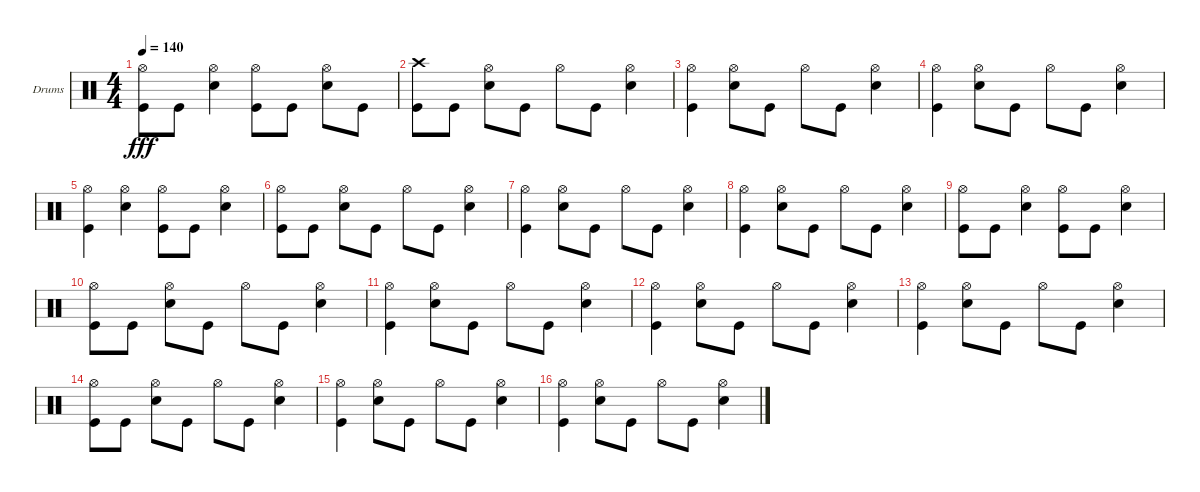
\bracketExtendMode groupsimilarinstruments
\firstSystemTrackNameOrientation horizontal
\otherSystemsTrackNameOrientation horizontal
\track ("Drumkit" "Drums") {instrument percussion}
\staff {score}
\articulation defaults
\ts (4 4)
\tempo 140
\clef neutral
\ks c
("Kick (hit)" "Hi-Hat (open)").8{dy fff} "Kick (hit)".8 ("Snare (hit) 2" "Hi-Hat (open)").4 ("Kick (hit)" "Hi-Hat (open)").8 "Kick (hit)".8 ("Snare (hit) 2" "Hi-Hat (open)").8 "Kick (hit)".8 |
("Kick (hit)" "Crash high (hit)").8 "Kick (hit)".8 ("Snare (hit) 2" "Hi-Hat (open)").8 "Kick (hit)".8 "Hi-Hat (open)".8 "Kick (hit)".8 ("Snare (hit) 2" "Hi-Hat (open)").4 |
("Kick (hit)" "Hi-Hat (open)").4 ("Hi-Hat (open)" "Snare (hit) 2").8 "Kick (hit)".8 "Hi-Hat (open)".8 "Kick (hit)".8 ("Snare (hit) 2" "Hi-Hat (open)").4 |
("Kick (hit)" "Hi-Hat (open)").4 ("Hi-Hat (open)" "Snare (hit) 2").8 "Kick (hit)".8 "Hi-Hat (open)".8 "Kick (hit)".8 ("Snare (hit) 2" "Hi-Hat (open)").4 |
("Kick (hit)" "Hi-Hat (open)").4 ("Hi-Hat (open)" "Snare (hit) 2").4 ("Hi-Hat (open)" "Kick (hit)").8 "Kick (hit)".8 ("Snare (hit) 2" "Hi-Hat (open)").4 |
("Kick (hit)" "Hi-Hat (open)").8 "Kick (hit)".8 ("Snare (hit) 2" "Hi-Hat (open)").8 "Kick (hit)".8 "Hi-Hat (open)".8 "Kick (hit)".8 ("Snare (hit) 2" "Hi-Hat (open)").4 |
("Kick (hit)" "Hi-Hat (open)").4 ("Hi-Hat (open)" "Snare (hit) 2").8 "Kick (hit)".8 "Hi-Hat (open)".8 "Kick (hit)".8 ("Snare (hit) 2" "Hi-Hat (open)").4 |
("Kick (hit)" "Hi-Hat (open)").4 ("Hi-Hat (open)" "Snare (hit) 2").8 "Kick (hit)".8 "Hi-Hat (open)".8 "Kick (hit)".8 ("Snare (hit) 2" "Hi-Hat (open)").4 |
("Kick (hit)" "Hi-Hat (open)").8 "Kick (hit)".8 ("Snare (hit) 2" "Hi-Hat (open)").4 ("Kick (hit)" "Hi-Hat (open)").8 "Kick (hit)".8 ("Snare (hit) 2" "Hi-Hat (open)").4 |
("Kick (hit)" "Hi-Hat (open)").8 "Kick (hit)".8 ("Snare (hit) 2" "Hi-Hat (open)").8 "Kick (hit)".8 "Hi-Hat (open)".8 "Kick (hit)".8 ("Snare (hit) 2" "Hi-Hat (open)").4 |
("Kick (hit)" "Hi-Hat (open)").4 ("Hi-Hat (open)" "Snare (hit) 2").8 "Kick (hit)".8 "Hi-Hat (open)".8 "Kick (hit)".8 ("Snare (hit) 2" "Hi-Hat (open)").4 |
("Kick (hit)" "Hi-Hat (open)").4 ("Hi-Hat (open)" "Snare (hit) 2").8 "Kick (hit)".8 "Hi-Hat (open)".8 "Kick (hit)".8 ("Snare (hit) 2" "Hi-Hat (open)").4 |
("Kick (hit)" "Hi-Hat (open)").4 ("Hi-Hat (open)" "Snare (hit) 2").8 "Kick (hit)".8 "Hi-Hat (open)".8 "Kick (hit)".8 ("Snare (hit) 2" "Hi-Hat (open)").4 |
("Kick (hit)" "Hi-Hat (open)").8 "Kick (hit)".8 ("Snare (hit) 2" "Hi-Hat (open)").8 "Kick (hit)".8 "Hi-Hat (open)".8 "Kick (hit)".8 ("Snare (hit) 2" "Hi-Hat (open)").4 |
("Kick (hit)" "Hi-Hat (open)").4 ("Hi-Hat (open)" "Snare (hit) 2").8 "Kick (hit)".8 "Hi-Hat (open)".8 "Kick (hit)".8 ("Snare (hit) 2" "Hi-Hat (open)").4 |
("Kick (hit)" "Hi-Hat (open)").4 ("Hi-Hat (open)" "Snare (hit) 2").8 "Kick (hit)".8 "Hi-Hat (open)".8 "Kick (hit)".8 ("Snare (hit) 2" "Hi-Hat (open)").4
